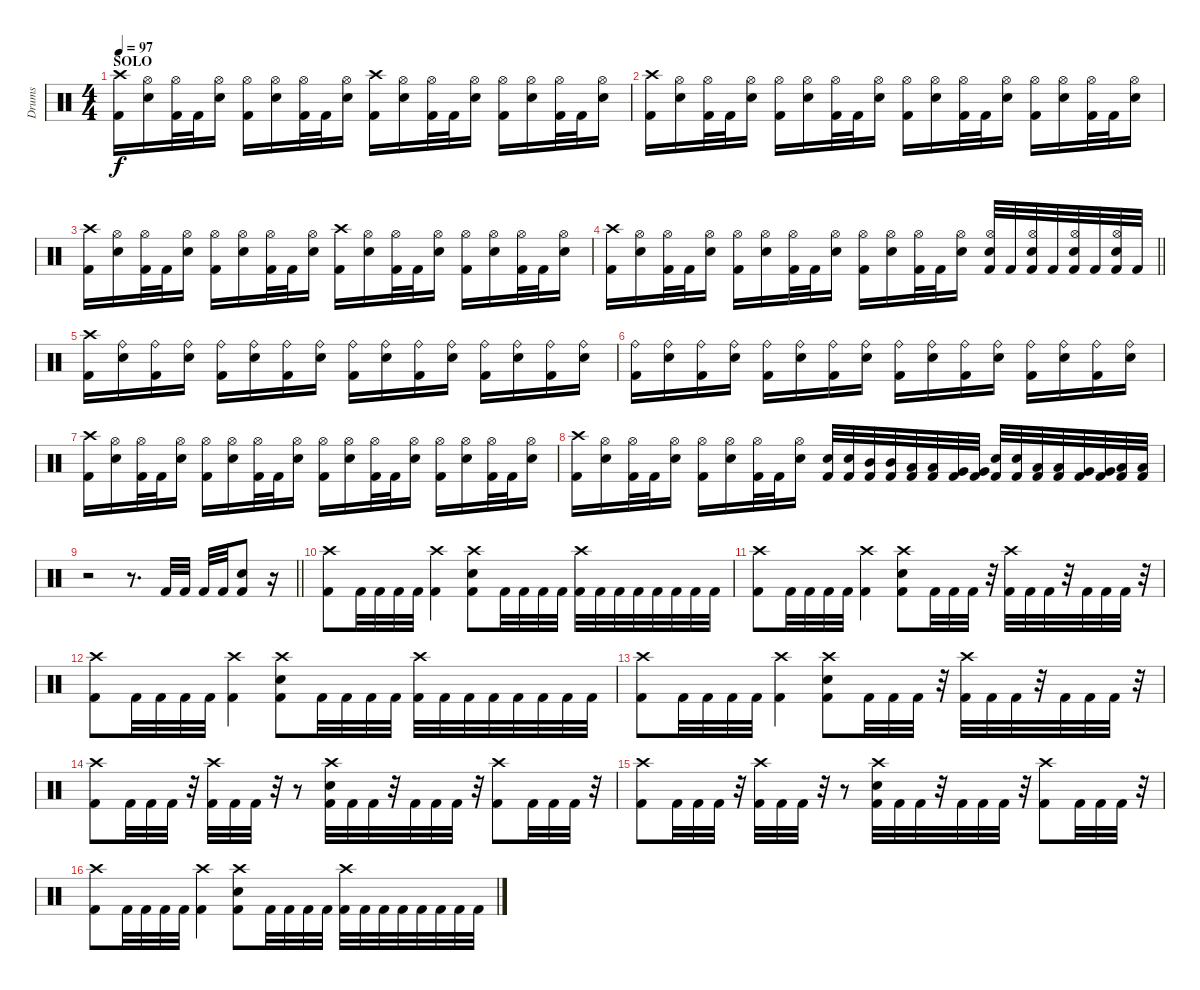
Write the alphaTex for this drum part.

\track ("Drums" "Drums") {instrument percussion}
\staff
\articulation defaults
\ts (4 4)
\section ("" "SOLO")
\tempo 97
\clef neutral
\ks c
("Crash high (hit)" "Kick (hit) 2").16{dy f} ("Hi-Hat (open)" "Electric Snare (hit)").16 ("Hi-Hat (open)" "Kick (hit) 2").32 "Kick (hit) 2".32 ("Hi-Hat (open)" "Electric Snare (hit)").16 ("Hi-Hat (open)" "Kick (hit) 2").16 ("Hi-Hat (open)" "Electric Snare (hit)").16 ("Hi-Hat (open)" "Kick (hit) 2").32 "Kick (hit) 2".32 ("Hi-Hat (open)" "Electric Snare (hit)").16 ("Crash high (hit)" "Kick (hit) 2").16 ("Hi-Hat (open)" "Electric Snare (hit)").16 ("Hi-Hat (open)" "Kick (hit) 2").32 "Kick (hit) 2".32 ("Hi-Hat (open)" "Electric Snare (hit)").16 ("Hi-Hat (open)" "Kick (hit) 2").16 ("Hi-Hat (open)" "Electric Snare (hit)").16 ("Hi-Hat (open)" "Kick (hit) 2").32 "Kick (hit) 2".32 ("Hi-Hat (open)" "Electric Snare (hit)").16 |
("Crash high (hit)" "Kick (hit) 2").16 ("Hi-Hat (open)" "Electric Snare (hit)").16 ("Hi-Hat (open)" "Kick (hit) 2").32 "Kick (hit) 2".32 ("Hi-Hat (open)" "Electric Snare (hit)").16 ("Hi-Hat (open)" "Kick (hit) 2").16 ("Hi-Hat (open)" "Electric Snare (hit)").16 ("Hi-Hat (open)" "Kick (hit) 2").32 "Kick (hit) 2".32 ("Hi-Hat (open)" "Electric Snare (hit)").16 ("Hi-Hat (open)" "Kick (hit) 2").16 ("Hi-Hat (open)" "Electric Snare (hit)").16 ("Hi-Hat (open)" "Kick (hit) 2").32 "Kick (hit) 2".32 ("Hi-Hat (open)" "Electric Snare (hit)").16 ("Hi-Hat (open)" "Kick (hit) 2").16 ("Hi-Hat (open)" "Electric Snare (hit)").16 ("Hi-Hat (open)" "Kick (hit) 2").32 "Kick (hit) 2".32 ("Hi-Hat (open)" "Electric Snare (hit)").16 |
("Crash high (hit)" "Kick (hit) 2").16 ("Hi-Hat (open)" "Electric Snare (hit)").16 ("Hi-Hat (open)" "Kick (hit) 2").32 "Kick (hit) 2".32 ("Hi-Hat (open)" "Electric Snare (hit)").16 ("Hi-Hat (open)" "Kick (hit) 2").16 ("Hi-Hat (open)" "Electric Snare (hit)").16 ("Hi-Hat (open)" "Kick (hit) 2").32 "Kick (hit) 2".32 ("Hi-Hat (open)" "Electric Snare (hit)").16 ("Crash high (hit)" "Kick (hit) 2").16 ("Hi-Hat (open)" "Electric Snare (hit)").16 ("Hi-Hat (open)" "Kick (hit) 2").32 "Kick (hit) 2".32 ("Hi-Hat (open)" "Electric Snare (hit)").16 ("Hi-Hat (open)" "Kick (hit) 2").16 ("Hi-Hat (open)" "Electric Snare (hit)").16 ("Hi-Hat (open)" "Kick (hit) 2").32 "Kick (hit) 2".32 ("Hi-Hat (open)" "Electric Snare (hit)").16 |
\barLineRight lightlight
("Crash high (hit)" "Kick (hit) 2").16 ("Hi-Hat (open)" "Electric Snare (hit)").16 ("Hi-Hat (open)" "Kick (hit) 2").32 "Kick (hit) 2".32 ("Hi-Hat (open)" "Electric Snare (hit)").16 ("Hi-Hat (open)" "Kick (hit) 2").16 ("Hi-Hat (open)" "Electric Snare (hit)").16 ("Hi-Hat (open)" "Kick (hit) 2").32 "Kick (hit) 2".32 ("Hi-Hat (open)" "Electric Snare (hit)").16 ("Hi-Hat (open)" "Kick (hit) 2").16 ("Hi-Hat (open)" "Electric Snare (hit)").16 ("Hi-Hat (open)" "Kick (hit) 2").32 "Kick (hit) 2".32 ("Hi-Hat (open)" "Electric Snare (hit)").16 ("Hi-Hat (open)" "Electric Snare (hit)" "Kick (hit) 2").32 "Kick (hit) 2".32 ("Hi-Hat (open)" "Electric Snare (hit)" "Kick (hit) 2").32 "Kick (hit) 2".32 ("Hi-Hat (open)" "Electric Snare (hit)" "Kick (hit) 2").32 "Kick (hit) 2".32 ("Hi-Hat (open)" "Electric Snare (hit)" "Kick (hit) 2").32 "Kick (hit) 2".32 |
("Crash high (hit)" "Kick (hit) 2").16 ("Ride (bell)" "Electric Snare (hit)").16 ("Ride (bell)" "Kick (hit) 2").16 ("Ride (bell)" "Electric Snare (hit)").16 ("Ride (bell)" "Kick (hit) 2").16 ("Ride (bell)" "Electric Snare (hit)").16 ("Ride (bell)" "Kick (hit) 2").16 ("Ride (bell)" "Electric Snare (hit)").16 ("Ride (bell)" "Kick (hit) 2").16 ("Ride (bell)" "Electric Snare (hit)").16 ("Ride (bell)" "Kick (hit) 2").16 ("Ride (bell)" "Electric Snare (hit)").16 ("Ride (bell)" "Kick (hit) 2").16 ("Ride (bell)" "Electric Snare (hit)").16 ("Ride (bell)" "Kick (hit) 2").16 ("Ride (bell)" "Electric Snare (hit)").16 |
("Ride (bell)" "Kick (hit) 2").16 ("Ride (bell)" "Electric Snare (hit)").16 ("Ride (bell)" "Kick (hit) 2").16 ("Ride (bell)" "Electric Snare (hit)").16 ("Ride (bell)" "Kick (hit) 2").16 ("Ride (bell)" "Electric Snare (hit)").16 ("Ride (bell)" "Kick (hit) 2").16 ("Ride (bell)" "Electric Snare (hit)").16 ("Ride (bell)" "Kick (hit) 2").16 ("Ride (bell)" "Electric Snare (hit)").16 ("Ride (bell)" "Kick (hit) 2").16 ("Ride (bell)" "Electric Snare (hit)").16 ("Ride (bell)" "Kick (hit) 2").16 ("Ride (bell)" "Electric Snare (hit)").16 ("Ride (bell)" "Kick (hit) 2").16 ("Ride (bell)" "Electric Snare (hit)").16 |
("Crash high (hit)" "Kick (hit) 2").16 ("Hi-Hat (open)" "Electric Snare (hit)").16 ("Hi-Hat (open)" "Kick (hit) 2").32 "Kick (hit) 2".32 ("Hi-Hat (open)" "Electric Snare (hit)").16 ("Hi-Hat (open)" "Kick (hit) 2").16 ("Hi-Hat (open)" "Electric Snare (hit)").16 ("Hi-Hat (open)" "Kick (hit) 2").32 "Kick (hit) 2".32 ("Hi-Hat (open)" "Electric Snare (hit)").16 ("Hi-Hat (open)" "Kick (hit) 2").16 ("Hi-Hat (open)" "Electric Snare (hit)").16 ("Hi-Hat (open)" "Kick (hit) 2").32 "Kick (hit) 2".32 ("Hi-Hat (open)" "Electric Snare (hit)").16 ("Hi-Hat (open)" "Kick (hit) 2").16 ("Hi-Hat (open)" "Electric Snare (hit)").16 ("Hi-Hat (open)" "Kick (hit) 2").32 "Kick (hit) 2".32 ("Hi-Hat (open)" "Electric Snare (hit)").16 |
("Crash high (hit)" "Kick (hit) 2").16 ("Hi-Hat (open)" "Electric Snare (hit)").16 ("Hi-Hat (open)" "Kick (hit) 2").32 "Kick (hit) 2".32 ("Hi-Hat (open)" "Electric Snare (hit)").16 ("Hi-Hat (open)" "Kick (hit) 2").16 ("Hi-Hat (open)" "Electric Snare (hit)").16 ("Hi-Hat (open)" "Kick (hit) 2").32 "Kick (hit) 2".32 ("Hi-Hat (open)" "Electric Snare (hit)").16 ("Electric Snare (hit)" "Kick (hit) 2").32 ("Electric Snare (hit)" "Kick (hit) 2").32 ("Mid Tom (hit)" "Kick (hit) 2").32 ("Mid Tom (hit)" "Kick (hit) 2").32 ("Low Tom (hit)" "Kick (hit) 2").32 ("Low Tom (hit)" "Kick (hit) 2").32 ("Very Low Tom (hit)" "Kick (hit) 2").32 ("Very Low Tom (hit)" "Kick (hit) 2").32 ("Electric Snare (hit)" "Kick (hit) 2").32 ("Electric Snare (hit)" "Kick (hit) 2").32 ("Low Tom (hit)" "Kick (hit) 2").32 ("Low Tom (hit)" "Kick (hit) 2").32 ("Very Low Tom (hit)" "Kick (hit) 2").32 ("Very Low Tom (hit)" "Kick (hit) 2").32 ("Low Floor Tom (hit)" "Kick (hit) 2").32 ("Low Floor Tom (hit)" "Kick (hit) 2").32 |
\barLineRight lightlight
r.2 r.8{d} "Kick (hit) 2".32 "Kick (hit) 2".32 "Kick (hit) 2".32 "Kick (hit) 2".32 ("Electric Snare (hit)" "Kick (hit) 2").8 r.16 |
\section ("" "")
("Crash high (hit)" "Kick (hit) 2").8 "Kick (hit) 2".32 "Kick (hit) 2".32 "Kick (hit) 2".32 "Kick (hit) 2".32 ("Crash high (hit)" "Kick (hit) 2").4 ("Crash high (hit)" "Electric Snare (hit)" "Kick (hit) 2").8 "Kick (hit) 2".32 "Kick (hit) 2".32 "Kick (hit) 2".32 "Kick (hit) 2".32 ("Crash high (hit)" "Kick (hit) 2").32 "Kick (hit) 2".32 "Kick (hit) 2".32 "Kick (hit) 2".32 "Kick (hit) 2".32 "Kick (hit) 2".32 "Kick (hit) 2".32 "Kick (hit) 2".32 |
("Crash high (hit)" "Kick (hit) 2").8 "Kick (hit) 2".32 "Kick (hit) 2".32 "Kick (hit) 2".32 "Kick (hit) 2".32 ("Crash high (hit)" "Kick (hit) 2").4 ("Crash high (hit)" "Electric Snare (hit)" "Kick (hit) 2").8 "Kick (hit) 2".32 "Kick (hit) 2".32 "Kick (hit) 2".32 r.32 ("Crash high (hit)" "Kick (hit) 2").32 "Kick (hit) 2".32 "Kick (hit) 2".32 r.32 "Kick (hit) 2".32 "Kick (hit) 2".32 "Kick (hit) 2".32 r.32 |
("Crash high (hit)" "Kick (hit) 2").8 "Kick (hit) 2".32 "Kick (hit) 2".32 "Kick (hit) 2".32 "Kick (hit) 2".32 ("Crash high (hit)" "Kick (hit) 2").4 ("Crash high (hit)" "Electric Snare (hit)" "Kick (hit) 2").8 "Kick (hit) 2".32 "Kick (hit) 2".32 "Kick (hit) 2".32 "Kick (hit) 2".32 ("Crash high (hit)" "Kick (hit) 2").32 "Kick (hit) 2".32 "Kick (hit) 2".32 "Kick (hit) 2".32 "Kick (hit) 2".32 "Kick (hit) 2".32 "Kick (hit) 2".32 "Kick (hit) 2".32 |
("Crash high (hit)" "Kick (hit) 2").8 "Kick (hit) 2".32 "Kick (hit) 2".32 "Kick (hit) 2".32 "Kick (hit) 2".32 ("Crash high (hit)" "Kick (hit) 2").4 ("Crash high (hit)" "Electric Snare (hit)" "Kick (hit) 2").8 "Kick (hit) 2".32 "Kick (hit) 2".32 "Kick (hit) 2".32 r.32 ("Crash high (hit)" "Kick (hit) 2").32 "Kick (hit) 2".32 "Kick (hit) 2".32 r.32 "Kick (hit) 2".32 "Kick (hit) 2".32 "Kick (hit) 2".32 r.32 |
("Crash high (hit)" "Kick (hit) 2").8 "Kick (hit) 2".32 "Kick (hit) 2".32 "Kick (hit) 2".32 r.32 ("Crash high (hit)" "Kick (hit) 2").32 "Kick (hit) 2".32 "Kick (hit) 2".32 r.32 r.8 ("Crash high (hit)" "Electric Snare (hit)" "Kick (hit) 2").32 "Kick (hit) 2".32 "Kick (hit) 2".32 r.32 "Kick (hit) 2".32 "Kick (hit) 2".32 "Kick (hit) 2".32 r.32 ("Crash high (hit)" "Kick (hit) 2").8 "Kick (hit) 2".32 "Kick (hit) 2".32 "Kick (hit) 2".32 r.32 |
("Crash high (hit)" "Kick (hit) 2").8 "Kick (hit) 2".32 "Kick (hit) 2".32 "Kick (hit) 2".32 r.32 ("Crash high (hit)" "Kick (hit) 2").32 "Kick (hit) 2".32 "Kick (hit) 2".32 r.32 r.8 ("Crash high (hit)" "Electric Snare (hit)" "Kick (hit) 2").32 "Kick (hit) 2".32 "Kick (hit) 2".32 r.32 "Kick (hit) 2".32 "Kick (hit) 2".32 "Kick (hit) 2".32 r.32 ("Crash high (hit)" "Kick (hit) 2").8 "Kick (hit) 2".32 "Kick (hit) 2".32 "Kick (hit) 2".32 r.32 |
("Crash high (hit)" "Kick (hit) 2").8 "Kick (hit) 2".32 "Kick (hit) 2".32 "Kick (hit) 2".32 "Kick (hit) 2".32 ("Crash high (hit)" "Kick (hit) 2").4 ("Crash high (hit)" "Electric Snare (hit)" "Kick (hit) 2").8 "Kick (hit) 2".32 "Kick (hit) 2".32 "Kick (hit) 2".32 "Kick (hit) 2".32 ("Crash high (hit)" "Kick (hit) 2").32 "Kick (hit) 2".32 "Kick (hit) 2".32 "Kick (hit) 2".32 "Kick (hit) 2".32 "Kick (hit) 2".32 "Kick (hit) 2".32 "Kick (hit) 2".32
